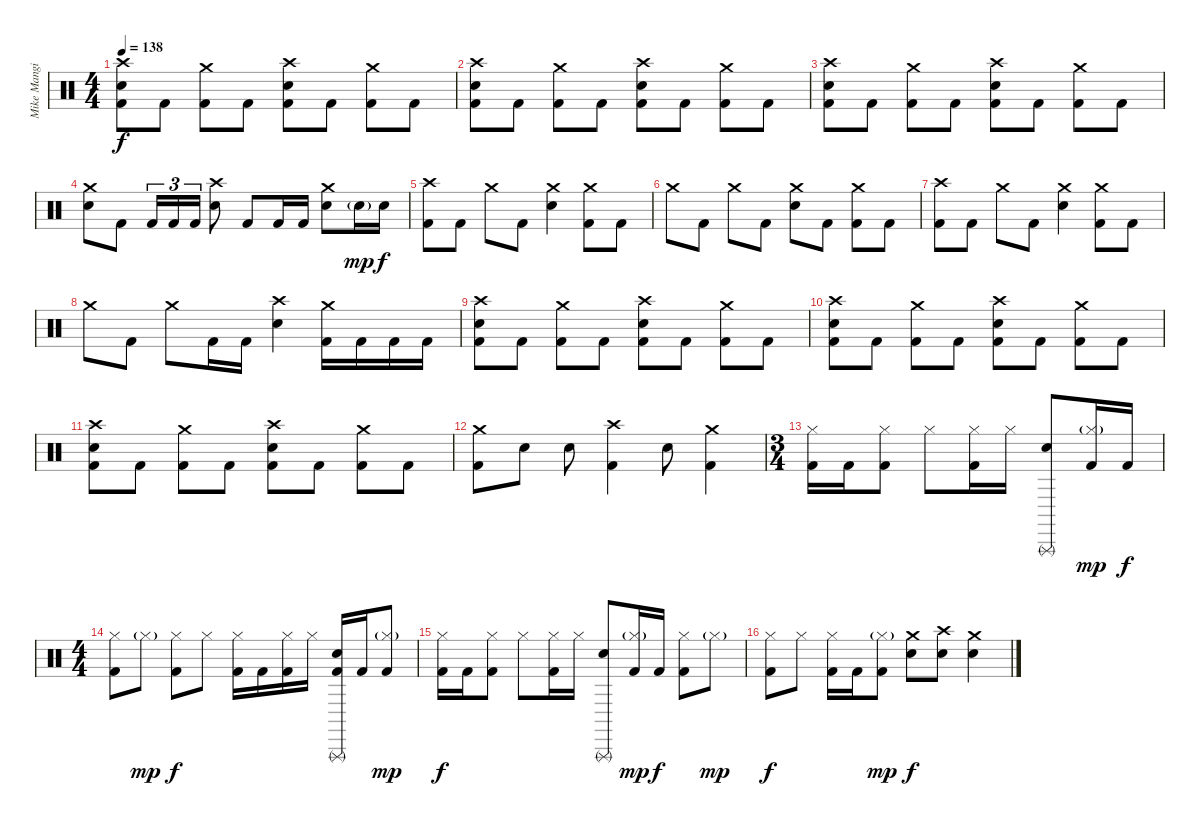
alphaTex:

\track ("Mike Mangini" "Mike Mangi") {instrument percussion}
\staff {score}
\articulation defaults
\ts (4 4)
\tempo 138
\clef neutral
\ks c
("Crash high (hit)" "Electric Snare (hit)" "Kick (hit) 2").8{dy f} "Kick (hit) 2".8 ("Crash medium (hit)" "Kick (hit) 2").8 "Kick (hit) 2".8 ("Crash high (hit)" "Electric Snare (hit)" "Kick (hit) 2").8 "Kick (hit) 2".8 ("Crash medium (hit)" "Kick (hit) 2").8 "Kick (hit) 2".8 |
("Crash high (hit)" "Electric Snare (hit)" "Kick (hit) 2").8 "Kick (hit) 2".8 ("Crash medium (hit)" "Kick (hit) 2").8 "Kick (hit) 2".8 ("Crash high (hit)" "Electric Snare (hit)" "Kick (hit) 2").8 "Kick (hit) 2".8 ("Crash medium (hit)" "Kick (hit) 2").8 "Kick (hit) 2".8 |
("Crash high (hit)" "Electric Snare (hit)" "Kick (hit) 2").8 "Kick (hit) 2".8 ("Crash medium (hit)" "Kick (hit) 2").8 "Kick (hit) 2".8 ("Crash high (hit)" "Electric Snare (hit)" "Kick (hit) 2").8 "Kick (hit) 2".8 ("Crash medium (hit)" "Kick (hit) 2").8 "Kick (hit) 2".8 |
("Crash medium (hit)" "Electric Snare (hit)").8 "Kick (hit) 2".8 "Kick (hit) 2".16{tu (3 2)} "Kick (hit) 2".16{tu (3 2)} "Kick (hit) 2".16{tu (3 2)} ("Crash high (hit)" "Electric Snare (hit)").8 "Kick (hit) 2".8 "Kick (hit) 2".16 "Kick (hit) 2".16 ("Crash medium (hit)" "Electric Snare (hit)").8 "Electric Snare (hit)"{g}.16{dy mp} "Electric Snare (hit)".16{dy f} |
("Crash high (hit)" "Kick (hit) 2").8 "Kick (hit) 2".8 "Crash medium (hit)".8 "Kick (hit) 2".8 ("Crash medium (hit)" "Electric Snare (hit)").4 ("Crash medium (hit)" "Kick (hit) 2").8 "Kick (hit) 2".8 |
"Crash medium (hit)".8 "Kick (hit) 2".8 "Crash medium (hit)".8 "Kick (hit) 2".8 ("Crash medium (hit)" "Electric Snare (hit)").8 "Kick (hit) 2".8 ("Crash medium (hit)" "Kick (hit) 2").8 "Kick (hit) 2".8 |
("Crash high (hit)" "Kick (hit) 2").8 "Kick (hit) 2".8 "Crash medium (hit)".8 "Kick (hit) 2".8 ("Crash medium (hit)" "Electric Snare (hit)").4 ("Crash medium (hit)" "Kick (hit) 2").8 "Kick (hit) 2".8 |
"Crash medium (hit)".8 "Kick (hit) 2".8 "Crash medium (hit)".8 "Kick (hit) 2".16 "Kick (hit) 2".16 ("Crash high (hit)" "Electric Snare (hit)").4 ("Crash medium (hit)" "Kick (hit) 2").16 "Kick (hit) 2".16 "Kick (hit) 2".16 "Kick (hit) 2".16 |
("Crash high (hit)" "Electric Snare (hit)" "Kick (hit) 2").8 "Kick (hit) 2".8 ("Crash medium (hit)" "Kick (hit) 2").8 "Kick (hit) 2".8 ("Crash high (hit)" "Electric Snare (hit)" "Kick (hit) 2").8 "Kick (hit) 2".8 ("Crash medium (hit)" "Kick (hit) 2").8 "Kick (hit) 2".8 |
("Crash high (hit)" "Electric Snare (hit)" "Kick (hit) 2").8 "Kick (hit) 2".8 ("Crash medium (hit)" "Kick (hit) 2").8 "Kick (hit) 2".8 ("Crash high (hit)" "Electric Snare (hit)" "Kick (hit) 2").8 "Kick (hit) 2".8 ("Crash medium (hit)" "Kick (hit) 2").8 "Kick (hit) 2".8 |
("Crash high (hit)" "Electric Snare (hit)" "Kick (hit) 2").8 "Kick (hit) 2".8 ("Crash medium (hit)" "Kick (hit) 2").8 "Kick (hit) 2".8 ("Crash high (hit)" "Electric Snare (hit)" "Kick (hit) 2").8 "Kick (hit) 2".8 ("Crash medium (hit)" "Kick (hit) 2").8 "Kick (hit) 2".8 |
("Crash medium (hit)" "Kick (hit) 2").8 "Electric Snare (hit)".8 "Electric Snare (hit)".8 ("Crash high (hit)" "Kick (hit) 2").4 "Electric Snare (hit)".8 ("Crash medium (hit)" "Kick (hit) 2").4 |
\ts (3 4)
("Hi-Hat (closed)" "Kick (hit) 2").16 "Kick (hit) 2".16 ("Hi-Hat (closed)" "Kick (hit) 2").8 "Hi-Hat (closed)".8 ("Hi-Hat (closed)" "Kick (hit) 2").16 "Hi-Hat (closed)".16 ("Triangle (rnute)" "Electric Snare (hit)").8 ("Hi-Hat (closed)"{g} "Kick (hit) 2").16{dy mp} "Kick (hit) 2".16{dy f} |
\ts (4 4)
("Hi-Hat (closed)" "Kick (hit) 2").8 "Hi-Hat (closed)"{g}.8{dy mp} ("Hi-Hat (closed)" "Kick (hit) 2").8{dy f} "Hi-Hat (closed)".8 ("Hi-Hat (closed)" "Kick (hit) 2").16 "Kick (hit) 2".16 ("Hi-Hat (closed)" "Kick (hit) 2").16 "Hi-Hat (closed)".16 ("Triangle (rnute)" "Electric Snare (hit)" "Kick (hit) 2").16 "Kick (hit) 2".16 ("Hi-Hat (closed)"{g} "Kick (hit) 2").8{dy mp} |
("Hi-Hat (closed)" "Kick (hit) 2").16{dy f} "Kick (hit) 2".16 ("Hi-Hat (closed)" "Kick (hit) 2").8 "Hi-Hat (closed)".8 ("Hi-Hat (closed)" "Kick (hit) 2").16 "Hi-Hat (closed)".16 ("Triangle (rnute)" "Electric Snare (hit)").8 ("Hi-Hat (closed)"{g} "Kick (hit) 2").16{dy mp} "Kick (hit) 2".16{dy f} ("Hi-Hat (closed)" "Kick (hit) 2").8 "Hi-Hat (closed)"{g}.8{dy mp} |
("Hi-Hat (closed)" "Kick (hit) 2").8{dy f} "Hi-Hat (closed)".8 ("Hi-Hat (closed)" "Kick (hit) 2").16 "Kick (hit) 2".16 ("Hi-Hat (closed)"{g} "Kick (hit) 2").8{dy mp} ("Crash medium (hit)" "Electric Snare (hit)").8{dy f} ("Crash high (hit)" "Electric Snare (hit)").8 ("Crash medium (hit)" "Electric Snare (hit)").4
